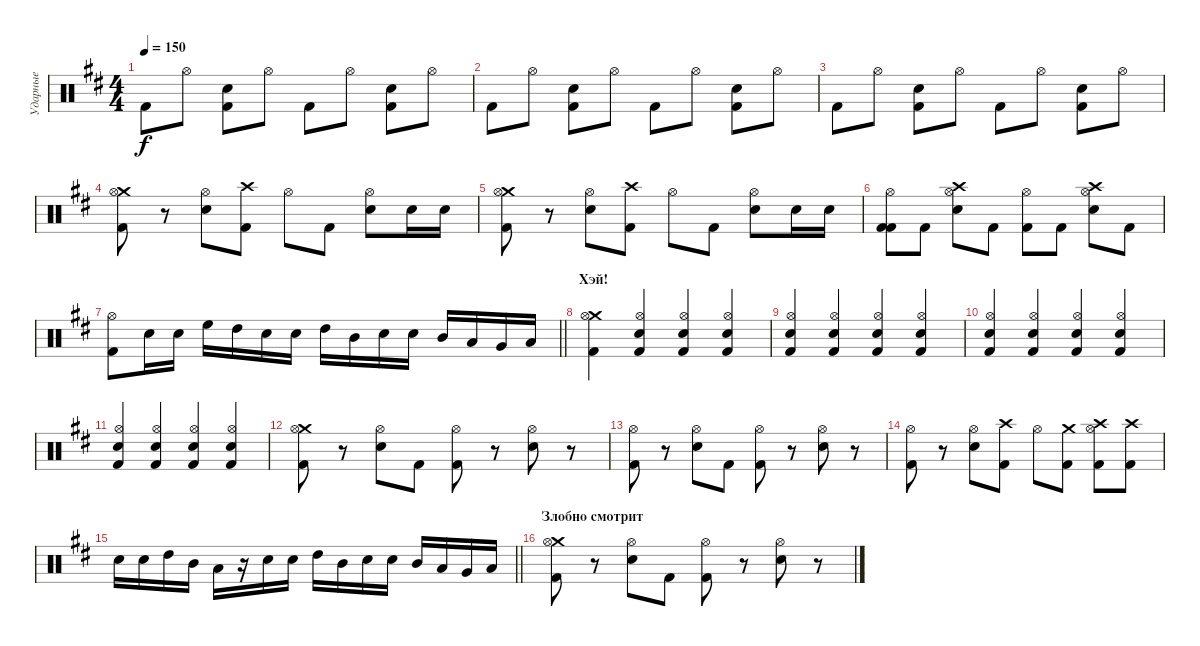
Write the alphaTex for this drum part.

\track ("Ударные" "Ударные") {instrument percussion}
\staff {score}
\articulation defaults
\ts (4 4)
\tempo 150
\clef neutral
\ks bminor "Kick (hit) 2".8{dy f} "Hi-Hat (open)".8
("Electric Snare (hit)" "Kick (hit) 2").8 "Hi-Hat (open)".8 "Kick (hit) 2".8 "Hi-Hat (open)".8 ("Electric Snare (hit)" "Kick (hit) 2").8 "Hi-Hat (open)".8 |
"Kick (hit) 2".8 "Hi-Hat (open)".8 ("Electric Snare (hit)" "Kick (hit) 2").8 "Hi-Hat (open)".8 "Kick (hit) 2".8 "Hi-Hat (open)".8 ("Electric Snare (hit)" "Kick (hit) 2").8 "Hi-Hat (open)".8 |
"Kick (hit) 2".8 "Hi-Hat (open)".8 ("Electric Snare (hit)" "Kick (hit) 2").8 "Hi-Hat (open)".8 "Kick (hit) 2".8 "Hi-Hat (open)".8 ("Electric Snare (hit)" "Kick (hit) 2").8 "Hi-Hat (open)".8 |
("Crash medium (hit)" "Kick (hit) 2" "Hi-Hat (open)").8 r.8 ("Electric Snare (hit)" "Hi-Hat (open)").8 ("Crash high (hit)" "Kick (hit) 2").8 "Hi-Hat (open)".8 "Kick (hit) 2".8 ("Electric Snare (hit)" "Hi-Hat (open)").8 "Electric Snare (hit)".16 "Electric Snare (hit)".16 |
("Crash medium (hit)" "Kick (hit) 2" "Hi-Hat (open)").8 r.8 ("Electric Snare (hit)" "Hi-Hat (open)").8 ("Crash high (hit)" "Kick (hit) 2").8 "Hi-Hat (open)".8 "Kick (hit) 2".8 ("Electric Snare (hit)" "Hi-Hat (open)").8 "Electric Snare (hit)".16 "Electric Snare (hit)".16 |
("Kick (hit) 2" "Hi-Hat (open)" "Kick (hit) 2").8 "Kick (hit) 2".8 ("Crash high (hit)" "Hi-Hat (open)" "Electric Snare (hit)").8 "Kick (hit) 2".8 ("Hi-Hat (open)" "Kick (hit) 2").8 "Kick (hit) 2".8 ("Crash high (hit)" "Hi-Hat (open)" "Electric Snare (hit)").8 "Kick (hit) 2".8 |
\barLineRight lightlight
("Hi-Hat (open)" "Kick (hit) 2").8 "Electric Snare (hit)".16 "Electric Snare (hit)".16 "High Floor Tom (hit)".16 "High Tom (hit)".16 "Electric Snare (hit)".16 "Electric Snare (hit)".16 "High Tom (hit)".16 "Mid Tom (hit)".16 "Electric Snare (hit)".16 "Electric Snare (hit)".16 "Mid Tom (hit)".16 "Low Tom (hit)".16 "Very Low Tom (hit)".16 "Low Floor Tom (hit)".16 |
\section ("" "Хэй!")
("Crash medium (hit)" "Kick (hit) 2" "Hi-Hat (open)").4 ("Electric Snare (hit)" "Hi-Hat (open)" "Kick (hit) 2").4 ("Electric Snare (hit)" "Hi-Hat (open)" "Kick (hit) 2").4 ("Electric Snare (hit)" "Hi-Hat (open)" "Kick (hit) 2").4 |
("Electric Snare (hit)" "Hi-Hat (open)" "Kick (hit) 2").4 ("Electric Snare (hit)" "Hi-Hat (open)" "Kick (hit) 2").4 ("Electric Snare (hit)" "Hi-Hat (open)" "Kick (hit) 2").4 ("Electric Snare (hit)" "Hi-Hat (open)" "Kick (hit) 2").4 |
("Electric Snare (hit)" "Hi-Hat (open)" "Kick (hit) 2").4 ("Electric Snare (hit)" "Hi-Hat (open)" "Kick (hit) 2").4 ("Electric Snare (hit)" "Hi-Hat (open)" "Kick (hit) 2").4 ("Electric Snare (hit)" "Hi-Hat (open)" "Kick (hit) 2").4 |
("Electric Snare (hit)" "Hi-Hat (open)" "Kick (hit) 2").4 ("Electric Snare (hit)" "Hi-Hat (open)" "Kick (hit) 2").4 ("Electric Snare (hit)" "Hi-Hat (open)" "Kick (hit) 2").4 ("Electric Snare (hit)" "Hi-Hat (open)" "Kick (hit) 2").4 |
("Crash medium (hit)" "Kick (hit) 2" "Hi-Hat (open)").8 r.8 ("Electric Snare (hit)" "Hi-Hat (open)").8 "Kick (hit) 2".8 ("Kick (hit) 2" "Hi-Hat (open)").8 r.8 ("Electric Snare (hit)" "Hi-Hat (open)").8 r.8 |
("Kick (hit) 2" "Hi-Hat (open)").8 r.8 ("Electric Snare (hit)" "Hi-Hat (open)").8 "Kick (hit) 2".8 ("Kick (hit) 2" "Hi-Hat (open)").8 r.8 ("Electric Snare (hit)" "Hi-Hat (open)").8 r.8 |
("Kick (hit) 2" "Hi-Hat (open)").8 r.8 ("Electric Snare (hit)" "Hi-Hat (open)").8 ("Crash high (hit)" "Kick (hit) 2").8 "Hi-Hat (open)".8 ("Crash medium (hit)" "Kick (hit) 2").8 ("Crash high (hit)" "Kick (hit) 2" "Hi-Hat (open)").8 ("Crash high (hit)" "Kick (hit) 2").8 |
\barLineRight lightlight "Electric Snare (hit)".16 "Electric Snare (hit)".16 "High Tom (hit)".16 "Mid Tom (hit)".16 "Low Tom (hit)".16
r.16 "Electric Snare (hit)".16 "Electric Snare (hit)".16 "High Tom (hit)".16 "Mid Tom (hit)".16 "Electric Snare (hit)".16 "Electric Snare (hit)".16 "Mid Tom (hit)".16 "Low Tom (hit)".16 "Very Low Tom (hit)".16 "Low Floor Tom (hit)".16 |
\section ("" "Злобно смотрит")
("Crash medium (hit)" "Kick (hit) 2" "Hi-Hat (open)").8 r.8 ("Electric Snare (hit)" "Hi-Hat (open)").8 "Kick (hit) 2".8 ("Kick (hit) 2" "Hi-Hat (open)").8 r.8 ("Electric Snare (hit)" "Hi-Hat (open)").8 r.8
